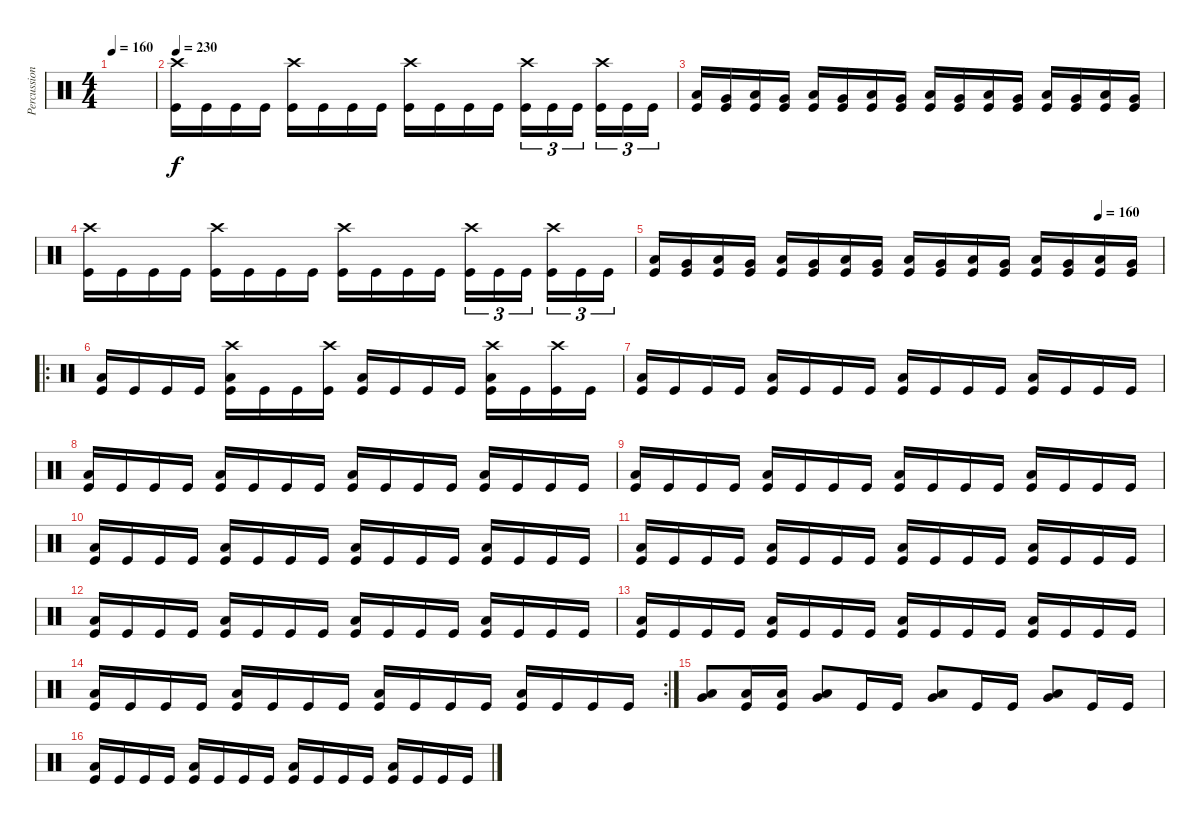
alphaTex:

\track ("Percussion" "Percussion") {instrument percussion}
\staff {score}
\articulation defaults
\ts (4 4)
\tempo 160
\clef neutral
\ks c
|
\tempo 230
("Crash high (hit)" "Kick (hit)").16 "Kick (hit)".16 "Kick (hit)".16 "Kick (hit)".16 ("Crash high (hit)" "Kick (hit)").16 "Kick (hit)".16 "Kick (hit)".16 "Kick (hit)".16 ("Crash high (hit)" "Kick (hit)").16 "Kick (hit)".16 "Kick (hit)".16 "Kick (hit)".16 ("Crash high (hit)" "Kick (hit)").16{tu (3 2)} "Kick (hit)".16{tu (3 2)} "Kick (hit)".16{tu (3 2)} ("Crash high (hit)" "Kick (hit)").16{tu (3 2)} "Kick (hit)".16{tu (3 2)} "Kick (hit)".16{tu (3 2)} |
("Low Floor Tom (hit)" "Kick (hit)").16 ("Very Low Tom (hit)" "Kick (hit)").16 ("Low Floor Tom (hit)" "Kick (hit)").16 ("Very Low Tom (hit)" "Kick (hit)").16 ("Low Floor Tom (hit)" "Kick (hit)").16 ("Very Low Tom (hit)" "Kick (hit)").16 ("Low Floor Tom (hit)" "Kick (hit)").16 ("Very Low Tom (hit)" "Kick (hit)").16 ("Low Floor Tom (hit)" "Kick (hit)").16 ("Very Low Tom (hit)" "Kick (hit)").16 ("Low Floor Tom (hit)" "Kick (hit)").16 ("Very Low Tom (hit)" "Kick (hit)").16 ("Low Floor Tom (hit)" "Kick (hit)").16 ("Very Low Tom (hit)" "Kick (hit)").16 ("Low Floor Tom (hit)" "Kick (hit)").16 ("Very Low Tom (hit)" "Kick (hit)").16 |
("Crash high (hit)" "Kick (hit)").16 "Kick (hit)".16 "Kick (hit)".16 "Kick (hit)".16 ("Crash high (hit)" "Kick (hit)").16 "Kick (hit)".16 "Kick (hit)".16 "Kick (hit)".16 ("Crash high (hit)" "Kick (hit)").16 "Kick (hit)".16 "Kick (hit)".16 "Kick (hit)".16 ("Crash high (hit)" "Kick (hit)").16{tu (3 2)} "Kick (hit)".16{tu (3 2)} "Kick (hit)".16{tu (3 2)} ("Crash high (hit)" "Kick (hit)").16{tu (3 2)} "Kick (hit)".16{tu (3 2)} "Kick (hit)".16{tu (3 2)} |
\tempo (160 0.875)
("Low Floor Tom (hit)" "Kick (hit)").16 ("Very Low Tom (hit)" "Kick (hit)").16 ("Low Floor Tom (hit)" "Kick (hit)").16 ("Very Low Tom (hit)" "Kick (hit)").16 ("Low Floor Tom (hit)" "Kick (hit)").16 ("Very Low Tom (hit)" "Kick (hit)").16 ("Low Floor Tom (hit)" "Kick (hit)").16 ("Very Low Tom (hit)" "Kick (hit)").16 ("Low Floor Tom (hit)" "Kick (hit)").16 ("Very Low Tom (hit)" "Kick (hit)").16 ("Low Floor Tom (hit)" "Kick (hit)").16 ("Very Low Tom (hit)" "Kick (hit)").16 ("Low Floor Tom (hit)" "Kick (hit)").16 ("Very Low Tom (hit)" "Kick (hit)").16 ("Low Floor Tom (hit)" "Kick (hit)").16 ("Very Low Tom (hit)" "Kick (hit)").16 |
\ro
("Low Floor Tom (hit)" "Kick (hit)").16 "Kick (hit)".16 "Kick (hit)".16 "Kick (hit)".16 ("Low Floor Tom (hit)" "Crash high (hit)" "Kick (hit)").16 "Kick (hit)".16 "Kick (hit)".16 ("Crash high (hit)" "Kick (hit)").16 ("Low Floor Tom (hit)" "Kick (hit)").16 "Kick (hit)".16 "Kick (hit)".16 "Kick (hit)".16 ("Low Floor Tom (hit)" "Crash high (hit)" "Kick (hit)").16 "Kick (hit)".16 ("Crash high (hit)" "Kick (hit)").16 "Kick (hit)".16 |
("Low Floor Tom (hit)" "Kick (hit)").16 "Kick (hit)".16 "Kick (hit)".16 "Kick (hit)".16 ("Low Floor Tom (hit)" "Kick (hit)").16 "Kick (hit)".16 "Kick (hit)".16 "Kick (hit)".16 ("Low Floor Tom (hit)" "Kick (hit)").16 "Kick (hit)".16 "Kick (hit)".16 "Kick (hit)".16 ("Low Floor Tom (hit)" "Kick (hit)").16 "Kick (hit)".16 "Kick (hit)".16 "Kick (hit)".16 |
("Low Floor Tom (hit)" "Kick (hit)").16 "Kick (hit)".16 "Kick (hit)".16 "Kick (hit)".16 ("Low Floor Tom (hit)" "Kick (hit)").16 "Kick (hit)".16 "Kick (hit)".16 "Kick (hit)".16 ("Low Floor Tom (hit)" "Kick (hit)").16 "Kick (hit)".16 "Kick (hit)".16 "Kick (hit)".16 ("Low Floor Tom (hit)" "Kick (hit)").16 "Kick (hit)".16 "Kick (hit)".16 "Kick (hit)".16 |
("Low Floor Tom (hit)" "Kick (hit)").16 "Kick (hit)".16 "Kick (hit)".16 "Kick (hit)".16 ("Low Floor Tom (hit)" "Kick (hit)").16 "Kick (hit)".16 "Kick (hit)".16 "Kick (hit)".16 ("Low Floor Tom (hit)" "Kick (hit)").16 "Kick (hit)".16 "Kick (hit)".16 "Kick (hit)".16 ("Low Floor Tom (hit)" "Kick (hit)").16 "Kick (hit)".16 "Kick (hit)".16 "Kick (hit)".16 |
("Low Floor Tom (hit)" "Kick (hit)").16 "Kick (hit)".16 "Kick (hit)".16 "Kick (hit)".16 ("Low Floor Tom (hit)" "Kick (hit)").16 "Kick (hit)".16 "Kick (hit)".16 "Kick (hit)".16 ("Low Floor Tom (hit)" "Kick (hit)").16 "Kick (hit)".16 "Kick (hit)".16 "Kick (hit)".16 ("Low Floor Tom (hit)" "Kick (hit)").16 "Kick (hit)".16 "Kick (hit)".16 "Kick (hit)".16 |
("Low Floor Tom (hit)" "Kick (hit)").16 "Kick (hit)".16 "Kick (hit)".16 "Kick (hit)".16 ("Low Floor Tom (hit)" "Kick (hit)").16 "Kick (hit)".16 "Kick (hit)".16 "Kick (hit)".16 ("Low Floor Tom (hit)" "Kick (hit)").16 "Kick (hit)".16 "Kick (hit)".16 "Kick (hit)".16 ("Low Floor Tom (hit)" "Kick (hit)").16 "Kick (hit)".16 "Kick (hit)".16 "Kick (hit)".16 |
("Low Floor Tom (hit)" "Kick (hit)").16 "Kick (hit)".16 "Kick (hit)".16 "Kick (hit)".16 ("Low Floor Tom (hit)" "Kick (hit)").16 "Kick (hit)".16 "Kick (hit)".16 "Kick (hit)".16 ("Low Floor Tom (hit)" "Kick (hit)").16 "Kick (hit)".16 "Kick (hit)".16 "Kick (hit)".16 ("Low Floor Tom (hit)" "Kick (hit)").16 "Kick (hit)".16 "Kick (hit)".16 "Kick (hit)".16 |
("Low Floor Tom (hit)" "Kick (hit)").16 "Kick (hit)".16 "Kick (hit)".16 "Kick (hit)".16 ("Low Floor Tom (hit)" "Kick (hit)").16 "Kick (hit)".16 "Kick (hit)".16 "Kick (hit)".16 ("Low Floor Tom (hit)" "Kick (hit)").16 "Kick (hit)".16 "Kick (hit)".16 "Kick (hit)".16 ("Low Floor Tom (hit)" "Kick (hit)").16 "Kick (hit)".16 "Kick (hit)".16 "Kick (hit)".16 |
\rc 2
("Low Floor Tom (hit)" "Kick (hit)").16 "Kick (hit)".16 "Kick (hit)".16 "Kick (hit)".16 ("Low Floor Tom (hit)" "Kick (hit)").16 "Kick (hit)".16 "Kick (hit)".16 "Kick (hit)".16 ("Low Floor Tom (hit)" "Kick (hit)").16 "Kick (hit)".16 "Kick (hit)".16 "Kick (hit)".16 ("Low Floor Tom (hit)" "Kick (hit)").16 "Kick (hit)".16 "Kick (hit)".16 "Kick (hit)".16 |
("Low Floor Tom (hit)" "Very Low Tom (hit)").8 ("Low Floor Tom (hit)" "Kick (hit)").16 ("Low Floor Tom (hit)" "Kick (hit)").16 ("Low Floor Tom (hit)" "Very Low Tom (hit)").8 "Kick (hit)".16 "Kick (hit)".16 ("Low Floor Tom (hit)" "Very Low Tom (hit)").8 "Kick (hit)".16 "Kick (hit)".16 ("Low Floor Tom (hit)" "Very Low Tom (hit)").8 "Kick (hit)".16 "Kick (hit)".16 |
("Low Floor Tom (hit)" "Kick (hit)").16 "Kick (hit)".16 "Kick (hit)".16 "Kick (hit)".16 ("Low Floor Tom (hit)" "Kick (hit)").16 "Kick (hit)".16 "Kick (hit)".16 "Kick (hit)".16 ("Low Floor Tom (hit)" "Kick (hit)").16 "Kick (hit)".16 "Kick (hit)".16 "Kick (hit)".16 ("Low Floor Tom (hit)" "Kick (hit)").16 "Kick (hit)".16 "Kick (hit)".16 "Kick (hit)".16
